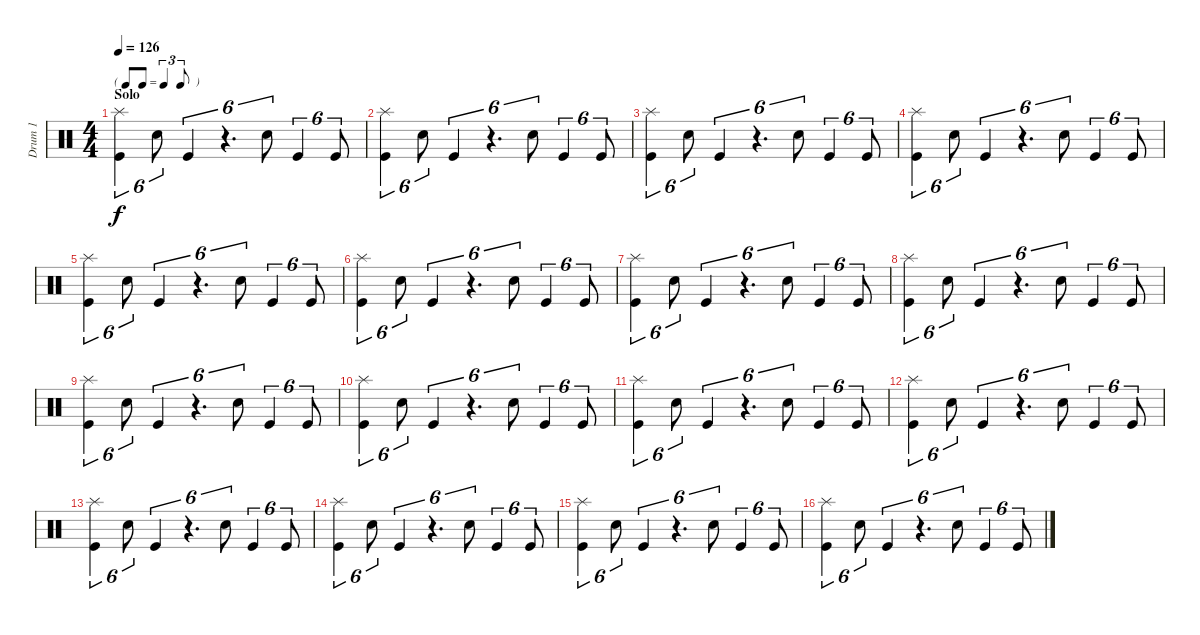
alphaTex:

\track ("Drum 1" "Drum 1") {instrument percussion}
\staff {score}
\articulation defaults
\ts (4 4)
\tf triplet8th
\section ("" "Solo")
\tempo 126
\clef neutral
\ks c
("Kick (hit)" "Splash (hit)").4{tu (6 4) dy f} "Snare (hit) 2".8{tu (6 4)} "Kick (hit)".4{tu (6 4)} r.4{d tu (6 4)} "Snare (hit) 2".8{tu (6 4)} "Kick (hit)".4{tu (6 4)} "Kick (hit)".8{tu (6 4)} |
("Kick (hit)" "Splash (hit)").4{tu (6 4)} "Snare (hit) 2".8{tu (6 4)} "Kick (hit)".4{tu (6 4)} r.4{d tu (6 4)} "Snare (hit) 2".8{tu (6 4)} "Kick (hit)".4{tu (6 4)} "Kick (hit)".8{tu (6 4)} |
("Kick (hit)" "Splash (hit)").4{tu (6 4)} "Snare (hit) 2".8{tu (6 4)} "Kick (hit)".4{tu (6 4)} r.4{d tu (6 4)} "Snare (hit) 2".8{tu (6 4)} "Kick (hit)".4{tu (6 4)} "Kick (hit)".8{tu (6 4)} |
("Kick (hit)" "Splash (hit)").4{tu (6 4)} "Snare (hit) 2".8{tu (6 4)} "Kick (hit)".4{tu (6 4)} r.4{d tu (6 4)} "Snare (hit) 2".8{tu (6 4)} "Kick (hit)".4{tu (6 4)} "Kick (hit)".8{tu (6 4)} |
("Kick (hit)" "Splash (hit)").4{tu (6 4)} "Snare (hit) 2".8{tu (6 4)} "Kick (hit)".4{tu (6 4)} r.4{d tu (6 4)} "Snare (hit) 2".8{tu (6 4)} "Kick (hit)".4{tu (6 4)} "Kick (hit)".8{tu (6 4)} |
("Kick (hit)" "Splash (hit)").4{tu (6 4)} "Snare (hit) 2".8{tu (6 4)} "Kick (hit)".4{tu (6 4)} r.4{d tu (6 4)} "Snare (hit) 2".8{tu (6 4)} "Kick (hit)".4{tu (6 4)} "Kick (hit)".8{tu (6 4)} |
("Kick (hit)" "Splash (hit)").4{tu (6 4)} "Snare (hit) 2".8{tu (6 4)} "Kick (hit)".4{tu (6 4)} r.4{d tu (6 4)} "Snare (hit) 2".8{tu (6 4)} "Kick (hit)".4{tu (6 4)} "Kick (hit)".8{tu (6 4)} |
("Kick (hit)" "Splash (hit)").4{tu (6 4)} "Snare (hit) 2".8{tu (6 4)} "Kick (hit)".4{tu (6 4)} r.4{d tu (6 4)} "Snare (hit) 2".8{tu (6 4)} "Kick (hit)".4{tu (6 4)} "Kick (hit)".8{tu (6 4)} |
("Kick (hit)" "Splash (hit)").4{tu (6 4)} "Snare (hit) 2".8{tu (6 4)} "Kick (hit)".4{tu (6 4)} r.4{d tu (6 4)} "Snare (hit) 2".8{tu (6 4)} "Kick (hit)".4{tu (6 4)} "Kick (hit)".8{tu (6 4)} |
("Kick (hit)" "Splash (hit)").4{tu (6 4)} "Snare (hit) 2".8{tu (6 4)} "Kick (hit)".4{tu (6 4)} r.4{d tu (6 4)} "Snare (hit) 2".8{tu (6 4)} "Kick (hit)".4{tu (6 4)} "Kick (hit)".8{tu (6 4)} |
("Kick (hit)" "Splash (hit)").4{tu (6 4)} "Snare (hit) 2".8{tu (6 4)} "Kick (hit)".4{tu (6 4)} r.4{d tu (6 4)} "Snare (hit) 2".8{tu (6 4)} "Kick (hit)".4{tu (6 4)} "Kick (hit)".8{tu (6 4)} |
("Kick (hit)" "Splash (hit)").4{tu (6 4)} "Snare (hit) 2".8{tu (6 4)} "Kick (hit)".4{tu (6 4)} r.4{d tu (6 4)} "Snare (hit) 2".8{tu (6 4)} "Kick (hit)".4{tu (6 4)} "Kick (hit)".8{tu (6 4)} |
("Kick (hit)" "Splash (hit)").4{tu (6 4)} "Snare (hit) 2".8{tu (6 4)} "Kick (hit)".4{tu (6 4)} r.4{d tu (6 4)} "Snare (hit) 2".8{tu (6 4)} "Kick (hit)".4{tu (6 4)} "Kick (hit)".8{tu (6 4)} |
("Kick (hit)" "Splash (hit)").4{tu (6 4)} "Snare (hit) 2".8{tu (6 4)} "Kick (hit)".4{tu (6 4)} r.4{d tu (6 4)} "Snare (hit) 2".8{tu (6 4)} "Kick (hit)".4{tu (6 4)} "Kick (hit)".8{tu (6 4)} |
("Kick (hit)" "Splash (hit)").4{tu (6 4)} "Snare (hit) 2".8{tu (6 4)} "Kick (hit)".4{tu (6 4)} r.4{d tu (6 4)} "Snare (hit) 2".8{tu (6 4)} "Kick (hit)".4{tu (6 4)} "Kick (hit)".8{tu (6 4)} |
("Kick (hit)" "Splash (hit)").4{tu (6 4)} "Snare (hit) 2".8{tu (6 4)} "Kick (hit)".4{tu (6 4)} r.4{d tu (6 4)} "Snare (hit) 2".8{tu (6 4)} "Kick (hit)".4{tu (6 4)} "Kick (hit)".8{tu (6 4)}
